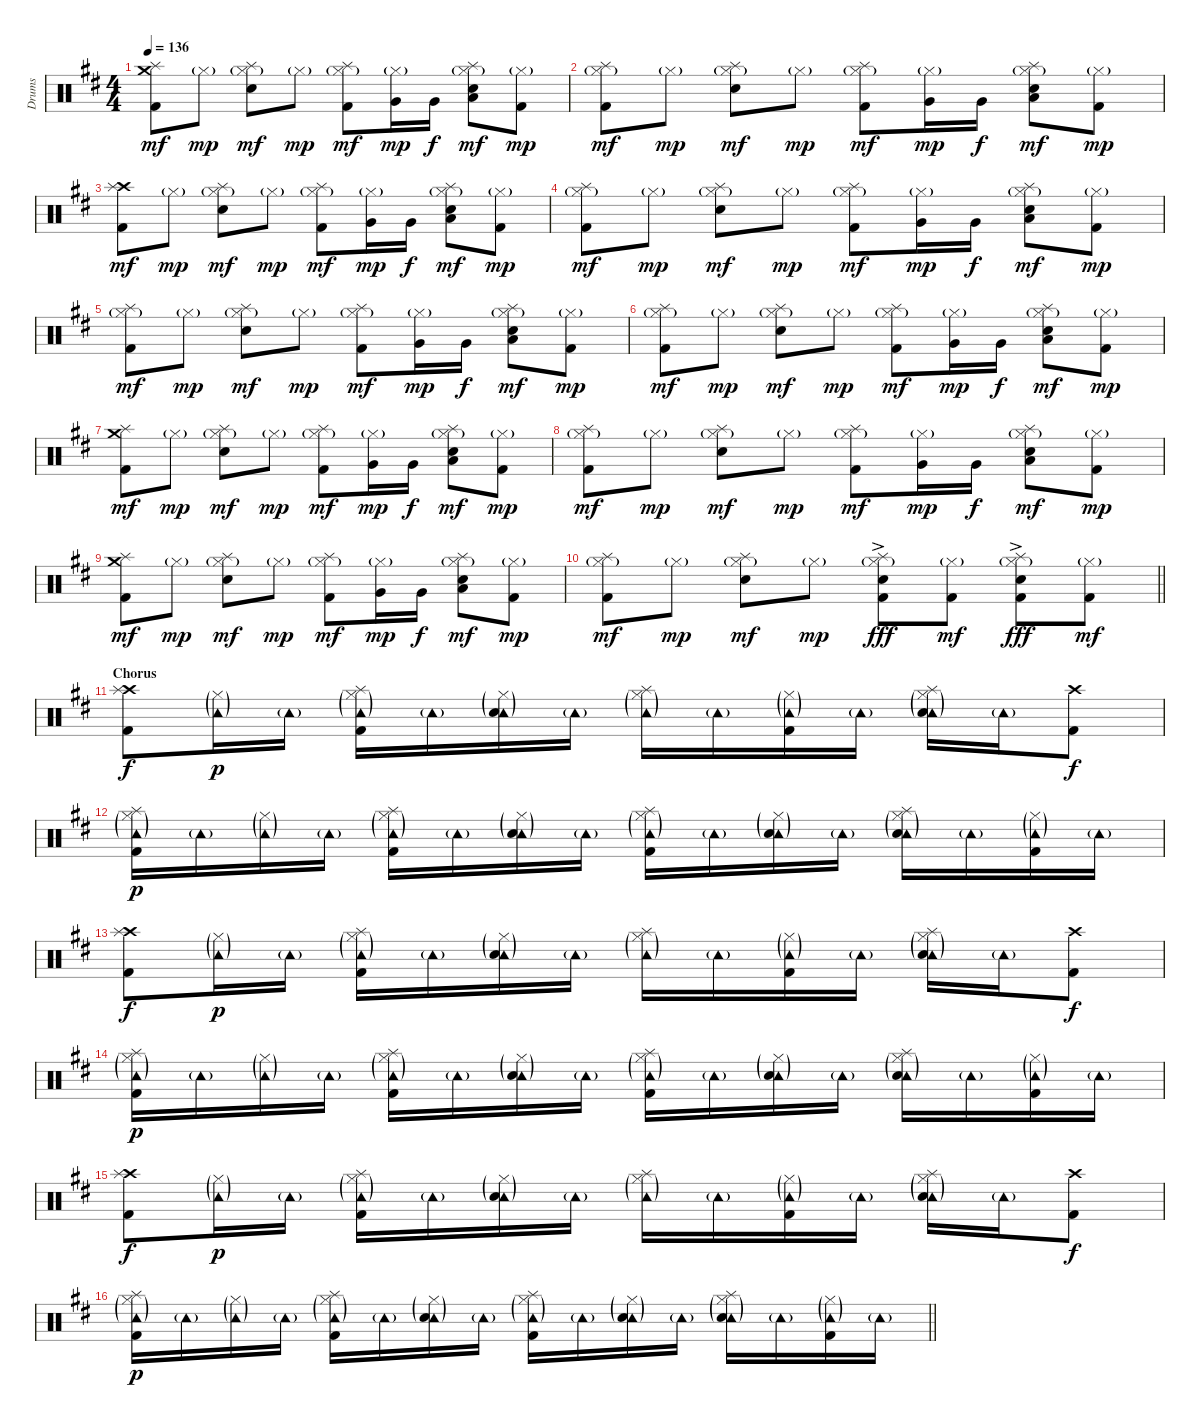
\track ("Drums" "Drums") {instrument percussion}
\staff {score}
\articulation defaults
\ts (4 4)
\tempo 136
\clef neutral
\ks d
("Crash medium (hit)" "Splash (hit)" "Kick (hit) 2").8{dy mf} "Hi-Hat (closed)"{g}.8{dy mp} ("Hi-Hat (closed)"{g} "Splash (hit)" "Snare (hit) 2").8{dy mf} "Hi-Hat (closed)"{g}.8{dy mp} ("Hi-Hat (closed)"{g} "Splash (hit)" "Kick (hit) 2").8{dy mf} ("Hi-Hat (closed)"{g} "Very Low Tom (hit)").16{dy mp} "Very Low Tom (hit)".16{dy f} ("Hi-Hat (closed)"{g} "Splash (hit)" "Low Floor Tom (hit)" "Snare (hit) 2").8{dy mf} ("Hi-Hat (closed)"{g} "Kick (hit) 2").8{dy mp} |
("Hi-Hat (closed)"{g} "Splash (hit)" "Kick (hit) 2").8{dy mf} "Hi-Hat (closed)"{g}.8{dy mp} ("Hi-Hat (closed)"{g} "Splash (hit)" "Snare (hit) 2").8{dy mf} "Hi-Hat (closed)"{g}.8{dy mp} ("Hi-Hat (closed)"{g} "Splash (hit)" "Kick (hit) 2").8{dy mf} ("Hi-Hat (closed)"{g} "Very Low Tom (hit)").16{dy mp} "Very Low Tom (hit)".16{dy f} ("Hi-Hat (closed)"{g} "Splash (hit)" "Low Floor Tom (hit)" "Snare (hit) 2").8{dy mf} ("Hi-Hat (closed)"{g} "Kick (hit) 2").8{dy mp} |
("Crash high (hit)" "Splash (hit)" "Kick (hit) 2").8{dy mf} "Hi-Hat (closed)"{g}.8{dy mp} ("Hi-Hat (closed)"{g} "Splash (hit)" "Snare (hit) 2").8{dy mf} "Hi-Hat (closed)"{g}.8{dy mp} ("Hi-Hat (closed)"{g} "Splash (hit)" "Kick (hit) 2").8{dy mf} ("Hi-Hat (closed)"{g} "Very Low Tom (hit)").16{dy mp} "Very Low Tom (hit)".16{dy f} ("Hi-Hat (closed)"{g} "Splash (hit)" "Low Floor Tom (hit)" "Snare (hit) 2").8{dy mf} ("Hi-Hat (closed)"{g} "Kick (hit) 2").8{dy mp} |
("Hi-Hat (closed)"{g} "Splash (hit)" "Kick (hit) 2").8{dy mf} "Hi-Hat (closed)"{g}.8{dy mp} ("Hi-Hat (closed)"{g} "Splash (hit)" "Snare (hit) 2").8{dy mf} "Hi-Hat (closed)"{g}.8{dy mp} ("Hi-Hat (closed)"{g} "Splash (hit)" "Kick (hit) 2").8{dy mf} ("Hi-Hat (closed)"{g} "Very Low Tom (hit)").16{dy mp} "Very Low Tom (hit)".16{dy f} ("Hi-Hat (closed)"{g} "Splash (hit)" "Low Floor Tom (hit)" "Snare (hit) 2").8{dy mf} ("Hi-Hat (closed)"{g} "Kick (hit) 2").8{dy mp} |
("Hi-Hat (closed)"{g} "Splash (hit)" "Kick (hit) 2").8{dy mf} "Hi-Hat (closed)"{g}.8{dy mp} ("Hi-Hat (closed)"{g} "Splash (hit)" "Snare (hit) 2").8{dy mf} "Hi-Hat (closed)"{g}.8{dy mp} ("Hi-Hat (closed)"{g} "Splash (hit)" "Kick (hit) 2").8{dy mf} ("Hi-Hat (closed)"{g} "Very Low Tom (hit)").16{dy mp} "Very Low Tom (hit)".16{dy f} ("Hi-Hat (closed)"{g} "Splash (hit)" "Low Floor Tom (hit)" "Snare (hit) 2").8{dy mf} ("Hi-Hat (closed)"{g} "Kick (hit) 2").8{dy mp} |
("Hi-Hat (closed)"{g} "Splash (hit)" "Kick (hit) 2").8{dy mf} "Hi-Hat (closed)"{g}.8{dy mp} ("Hi-Hat (closed)"{g} "Splash (hit)" "Snare (hit) 2").8{dy mf} "Hi-Hat (closed)"{g}.8{dy mp} ("Hi-Hat (closed)"{g} "Splash (hit)" "Kick (hit) 2").8{dy mf} ("Hi-Hat (closed)"{g} "Very Low Tom (hit)").16{dy mp} "Very Low Tom (hit)".16{dy f} ("Hi-Hat (closed)"{g} "Splash (hit)" "Low Floor Tom (hit)" "Snare (hit) 2").8{dy mf} ("Hi-Hat (closed)"{g} "Kick (hit) 2").8{dy mp} |
("Crash medium (hit)" "Splash (hit)" "Kick (hit) 2").8{dy mf} "Hi-Hat (closed)"{g}.8{dy mp} ("Hi-Hat (closed)"{g} "Splash (hit)" "Snare (hit) 2").8{dy mf} "Hi-Hat (closed)"{g}.8{dy mp} ("Hi-Hat (closed)"{g} "Splash (hit)" "Kick (hit) 2").8{dy mf} ("Hi-Hat (closed)"{g} "Very Low Tom (hit)").16{dy mp} "Very Low Tom (hit)".16{dy f} ("Hi-Hat (closed)"{g} "Splash (hit)" "Low Floor Tom (hit)" "Snare (hit) 2").8{dy mf} ("Hi-Hat (closed)"{g} "Kick (hit) 2").8{dy mp} |
("Hi-Hat (closed)"{g} "Splash (hit)" "Kick (hit) 2").8{dy mf} "Hi-Hat (closed)"{g}.8{dy mp} ("Hi-Hat (closed)"{g} "Splash (hit)" "Snare (hit) 2").8{dy mf} "Hi-Hat (closed)"{g}.8{dy mp} ("Hi-Hat (closed)"{g} "Splash (hit)" "Kick (hit) 2").8{dy mf} ("Hi-Hat (closed)"{g} "Very Low Tom (hit)").16{dy mp} "Very Low Tom (hit)".16{dy f} ("Hi-Hat (closed)"{g} "Splash (hit)" "Low Floor Tom (hit)" "Snare (hit) 2").8{dy mf} ("Hi-Hat (closed)"{g} "Kick (hit) 2").8{dy mp} |
("Crash medium (hit)" "Splash (hit)" "Kick (hit) 2").8{dy mf} "Hi-Hat (closed)"{g}.8{dy mp} ("Hi-Hat (closed)"{g} "Splash (hit)" "Snare (hit) 2").8{dy mf} "Hi-Hat (closed)"{g}.8{dy mp} ("Hi-Hat (closed)"{g} "Splash (hit)" "Kick (hit) 2").8{dy mf} ("Hi-Hat (closed)"{g} "Very Low Tom (hit)").16{dy mp} "Very Low Tom (hit)".16{dy f} ("Hi-Hat (closed)"{g} "Splash (hit)" "Low Floor Tom (hit)" "Snare (hit) 2").8{dy mf} ("Hi-Hat (closed)"{g} "Kick (hit) 2").8{dy mp} |
\barLineRight lightlight
("Hi-Hat (closed)"{g} "Splash (hit)" "Kick (hit) 2").8{dy mf} "Hi-Hat (closed)"{g}.8{dy mp} ("Hi-Hat (closed)"{g} "Splash (hit)" "Snare (hit) 2").8{dy mf} "Hi-Hat (closed)"{g}.8{dy mp} ("Hi-Hat (closed)"{g} "Splash (hit)" "Snare (hit) 2"{ac} "Kick (hit) 2").8{dy fff} ("Hi-Hat (closed)"{g} "Kick (hit) 2").8{dy mf} ("Hi-Hat (closed)"{g} "Splash (hit)" "Snare (hit) 2"{ac} "Kick (hit) 2").8{dy fff} ("Hi-Hat (closed)"{g} "Kick (hit) 2").8{dy mf} |
\section ("" "Chorus")
("Crash high (hit)" "Splash (hit)" "Kick (hit) 2").8{dy f} ("Hi-Hat (closed)"{g} "Tambourine (hit)"{g}).16{dy p} "Tambourine (hit)"{g}.16 ("Hi-Hat (closed)"{g} "Splash (hit)" "Tambourine (hit)"{g} "Kick (hit) 2").16 "Tambourine (hit)"{g}.16 ("Hi-Hat (closed)"{g} "Tambourine (hit)"{g} "Snare (hit) 2").16 "Tambourine (hit)"{g}.16 ("Hi-Hat (closed)"{g} "Splash (hit)" "Tambourine (hit)"{g}).16 "Tambourine (hit)"{g}.16 ("Hi-Hat (closed)"{g} "Tambourine (hit)"{g} "Kick (hit) 2").16 "Tambourine (hit)"{g}.16 ("Hi-Hat (closed)"{g} "Splash (hit)" "Tambourine (hit)"{g} "Snare (hit) 2").16 "Tambourine (hit)"{g}.16 ("Crash high (hit)" "Kick (hit) 2").8{dy f} |
("Hi-Hat (closed)"{g} "Splash (hit)" "Tambourine (hit)"{g} "Kick (hit) 2").16{dy p} "Tambourine (hit)"{g}.16 ("Hi-Hat (closed)"{g} "Tambourine (hit)"{g}).16 "Tambourine (hit)"{g}.16 ("Hi-Hat (closed)"{g} "Splash (hit)" "Tambourine (hit)"{g} "Kick (hit) 2").16 "Tambourine (hit)"{g}.16 ("Hi-Hat (closed)"{g} "Tambourine (hit)"{g} "Snare (hit) 2").16 "Tambourine (hit)"{g}.16 ("Hi-Hat (closed)"{g} "Splash (hit)" "Tambourine (hit)"{g} "Kick (hit) 2").16 "Tambourine (hit)"{g}.16 ("Hi-Hat (closed)"{g} "Tambourine (hit)"{g} "Snare (hit) 2").16 "Tambourine (hit)"{g}.16 ("Hi-Hat (closed)"{g} "Splash (hit)" "Tambourine (hit)"{g} "Snare (hit) 2").16 "Tambourine (hit)"{g}.16 ("Hi-Hat (closed)"{g} "Tambourine (hit)"{g} "Kick (hit) 2").16 "Tambourine (hit)"{g}.16 |
("Crash high (hit)" "Splash (hit)" "Kick (hit) 2").8{dy f} ("Hi-Hat (closed)"{g} "Tambourine (hit)"{g}).16{dy p} "Tambourine (hit)"{g}.16 ("Hi-Hat (closed)"{g} "Splash (hit)" "Tambourine (hit)"{g} "Kick (hit) 2").16 "Tambourine (hit)"{g}.16 ("Hi-Hat (closed)"{g} "Tambourine (hit)"{g} "Snare (hit) 2").16 "Tambourine (hit)"{g}.16 ("Hi-Hat (closed)"{g} "Splash (hit)" "Tambourine (hit)"{g}).16 "Tambourine (hit)"{g}.16 ("Hi-Hat (closed)"{g} "Tambourine (hit)"{g} "Kick (hit) 2").16 "Tambourine (hit)"{g}.16 ("Hi-Hat (closed)"{g} "Splash (hit)" "Tambourine (hit)"{g} "Snare (hit) 2").16 "Tambourine (hit)"{g}.16 ("Crash high (hit)" "Kick (hit) 2").8{dy f} |
("Hi-Hat (closed)"{g} "Splash (hit)" "Tambourine (hit)"{g} "Kick (hit) 2").16{dy p} "Tambourine (hit)"{g}.16 ("Hi-Hat (closed)"{g} "Tambourine (hit)"{g}).16 "Tambourine (hit)"{g}.16 ("Hi-Hat (closed)"{g} "Splash (hit)" "Tambourine (hit)"{g} "Kick (hit) 2").16 "Tambourine (hit)"{g}.16 ("Hi-Hat (closed)"{g} "Tambourine (hit)"{g} "Snare (hit) 2").16 "Tambourine (hit)"{g}.16 ("Hi-Hat (closed)"{g} "Splash (hit)" "Tambourine (hit)"{g} "Kick (hit) 2").16 "Tambourine (hit)"{g}.16 ("Hi-Hat (closed)"{g} "Tambourine (hit)"{g} "Snare (hit) 2").16 "Tambourine (hit)"{g}.16 ("Hi-Hat (closed)"{g} "Splash (hit)" "Tambourine (hit)"{g} "Snare (hit) 2").16 "Tambourine (hit)"{g}.16 ("Hi-Hat (closed)"{g} "Tambourine (hit)"{g} "Kick (hit) 2").16 "Tambourine (hit)"{g}.16 |
("Crash high (hit)" "Splash (hit)" "Kick (hit) 2").8{dy f} ("Hi-Hat (closed)"{g} "Tambourine (hit)"{g}).16{dy p} "Tambourine (hit)"{g}.16 ("Hi-Hat (closed)"{g} "Splash (hit)" "Tambourine (hit)"{g} "Kick (hit) 2").16 "Tambourine (hit)"{g}.16 ("Hi-Hat (closed)"{g} "Tambourine (hit)"{g} "Snare (hit) 2").16 "Tambourine (hit)"{g}.16 ("Hi-Hat (closed)"{g} "Splash (hit)" "Tambourine (hit)"{g}).16 "Tambourine (hit)"{g}.16 ("Hi-Hat (closed)"{g} "Tambourine (hit)"{g} "Kick (hit) 2").16 "Tambourine (hit)"{g}.16 ("Hi-Hat (closed)"{g} "Splash (hit)" "Tambourine (hit)"{g} "Snare (hit) 2").16 "Tambourine (hit)"{g}.16 ("Crash high (hit)" "Kick (hit) 2").8{dy f} |
\barLineRight lightlight
("Hi-Hat (closed)"{g} "Splash (hit)" "Tambourine (hit)"{g} "Kick (hit) 2").16{dy p} "Tambourine (hit)"{g}.16 ("Hi-Hat (closed)"{g} "Tambourine (hit)"{g}).16 "Tambourine (hit)"{g}.16 ("Hi-Hat (closed)"{g} "Splash (hit)" "Tambourine (hit)"{g} "Kick (hit) 2").16 "Tambourine (hit)"{g}.16 ("Hi-Hat (closed)"{g} "Tambourine (hit)"{g} "Snare (hit) 2").16 "Tambourine (hit)"{g}.16 ("Hi-Hat (closed)"{g} "Splash (hit)" "Tambourine (hit)"{g} "Kick (hit) 2").16 "Tambourine (hit)"{g}.16 ("Hi-Hat (closed)"{g} "Tambourine (hit)"{g} "Snare (hit) 2").16 "Tambourine (hit)"{g}.16 ("Hi-Hat (closed)"{g} "Splash (hit)" "Tambourine (hit)"{g} "Snare (hit) 2").16 "Tambourine (hit)"{g}.16 ("Hi-Hat (closed)"{g} "Tambourine (hit)"{g} "Kick (hit) 2").16 "Tambourine (hit)"{g}.16
